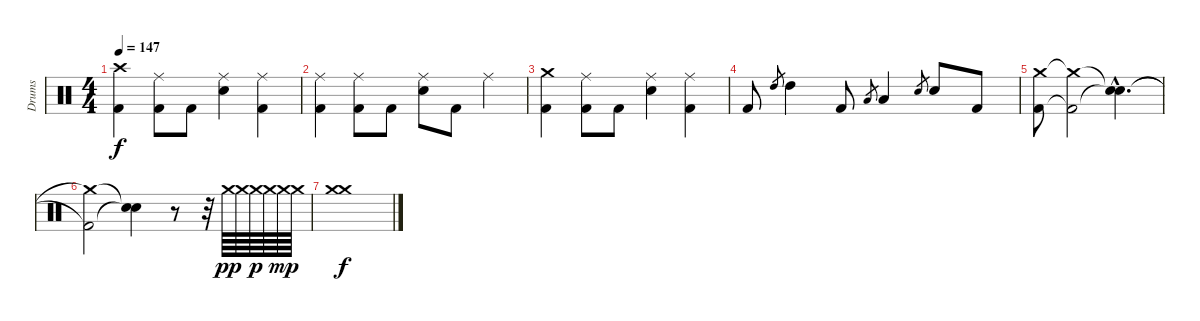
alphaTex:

\track ("Drums" "Drums") {instrument percussion}
\staff {score}
\articulation defaults
\ts (4 4)
\tempo 147
\clef neutral
\ks c
("Crash high (hit)" "Kick (hit) 2").4{dy f} ("Ride (middle)" "Kick (hit) 2").8 "Kick (hit) 2".8 ("Ride (middle)" "Snare (hit) 2").4 ("Ride (middle)" "Kick (hit) 2").4 |
("Ride (middle)" "Kick (hit) 2").4 ("Ride (middle)" "Kick (hit) 2").8 "Kick (hit) 2".8 ("Ride (middle)" "Snare (hit) 2").8 "Kick (hit) 2".8 "Ride (middle)".4 |
("Crash medium (hit)" "Kick (hit) 2").4 ("Ride (middle)" "Kick (hit) 2").8 "Kick (hit) 2".8 ("Ride (middle)" "Snare (hit) 2").4 ("Ride (middle)" "Kick (hit) 2").4 |
"Kick (hit) 2".8 "High Tom (hit)".8{gr} "High Tom (hit)".4 "Kick (hit) 2".8 "Low Tom (hit)".8{gr} "Low Tom (hit)".4 "Snare (hit) 2".8{gr} "Snare (hit) 2".8 "Kick (hit) 2".8 |
("Crash medium (hit)" "Kick (hit) 2").8{volume 0} ("Crash medium (hit)"{t} "Kick (hit) 2"{t}).2 ("Snare (hit)"{hac t} "Snare (hit)"{hac t}).4{d} |
("Crash medium (hit)"{t} "Kick (hit) 2"{t}).2 ("Snare (hit)"{t} "Snare (hit)"{t}).4 r.8 r.32 "Crash medium (hit)".64{dy pp} "Crash medium (hit)".64 "Crash medium (hit)".64{dy p} "Crash medium (hit)".64 "Crash medium (hit)".64{dy mp} "Crash medium (hit)".64 |
("Crash medium (hit)" "Crash medium (hit)").1{dy f}
